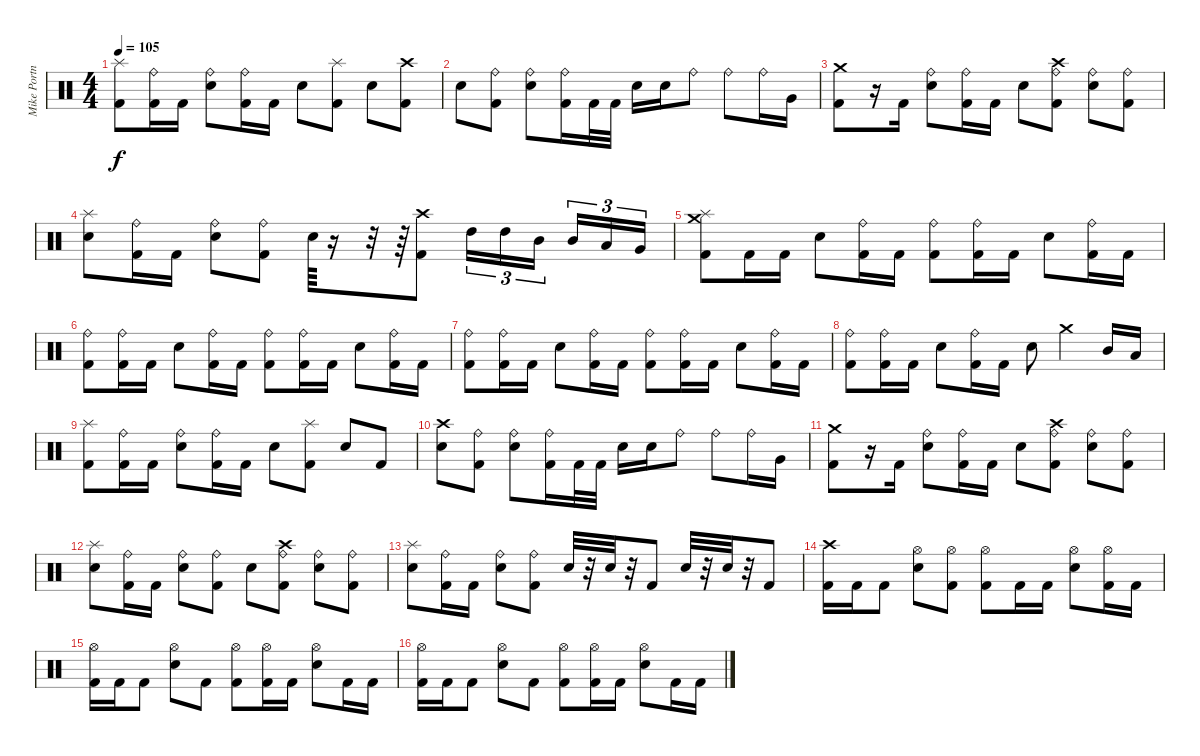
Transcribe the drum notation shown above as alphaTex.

\track ("Mike Portnoy" "Mike Portn") {instrument percussion}
\staff {score}
\articulation defaults
\ts (4 4)
\tempo 105
\clef neutral
\ks c
("Splash (hit)" "Kick (hit) 2").8{dy f} ("Ride (bell)" "Kick (hit) 2").16 "Kick (hit) 2".16 ("Ride (bell)" "Electric Snare (hit)").8 ("Ride (bell)" "Kick (hit) 2").16 "Kick (hit) 2".16 "Electric Snare (hit)".8 ("Splash (hit)" "Kick (hit) 2").8 "Electric Snare (hit)".8 ("Crash high (hit)" "Kick (hit) 2").8 |
"Electric Snare (hit)".8 ("Ride (bell)" "Kick (hit) 2").8 ("Ride (bell)" "Electric Snare (hit)").8 ("Ride (bell)" "Kick (hit) 2").16 "Kick (hit) 2".32 "Kick (hit) 2".32 "Electric Snare (hit)".16 "Electric Snare (hit)".16 "Ride (bell)".8 "Ride (bell)".8 "Ride (bell)".16 "Very Low Tom (hit)".16 |
("Crash medium (hit)" "Kick (hit) 2").8 r.16 "Kick (hit) 2".16 ("Ride (bell)" "Electric Snare (hit)").8 ("Ride (bell)" "Kick (hit) 2").16 "Kick (hit) 2".16 "Electric Snare (hit)".8 ("Ride (bell)" "Crash high (hit)" "Kick (hit) 2").8 ("Ride (bell)" "Electric Snare (hit)").8 ("Ride (bell)" "Kick (hit) 2").8 |
("Splash (hit)" "Electric Snare (hit)").8 ("Ride (bell)" "Kick (hit) 2").16 "Kick (hit) 2".16 ("Ride (bell)" "Electric Snare (hit)").8 ("Ride (bell)" "Kick (hit) 2").8 "Electric Snare (hit)".64 r.16 r.32 r.64 ("Crash high (hit)" "Kick (hit) 2").8 "High Tom (hit)".16{tu (3 2)} "High Tom (hit)".16{tu (3 2)} "Mid Tom (hit)".16{tu (3 2)} "Mid Tom (hit)".16{tu (3 2)} "Low Tom (hit)".16{tu (3 2)} "Very Low Tom (hit)".16{tu (3 2)} |
("Crash medium (hit)" "Splash (hit)" "Kick (hit) 2").8 "Kick (hit) 2".16 "Kick (hit) 2".16 "Electric Snare (hit)".8 ("Ride (bell)" "Kick (hit) 2").16 "Kick (hit) 2".16 ("Ride (bell)" "Kick (hit) 2").8 ("Ride (bell)" "Kick (hit) 2").16 "Kick (hit) 2".16 "Electric Snare (hit)".8 ("Ride (bell)" "Kick (hit) 2").16 "Kick (hit) 2".16 |
("Ride (bell)" "Kick (hit) 2").8 ("Ride (bell)" "Kick (hit) 2").16 "Kick (hit) 2".16 "Electric Snare (hit)".8 ("Ride (bell)" "Kick (hit) 2").16 "Kick (hit) 2".16 ("Ride (bell)" "Kick (hit) 2").8 ("Ride (bell)" "Kick (hit) 2").16 "Kick (hit) 2".16 "Electric Snare (hit)".8 ("Ride (bell)" "Kick (hit) 2").16 "Kick (hit) 2".16 |
("Ride (bell)" "Kick (hit) 2").8 ("Ride (bell)" "Kick (hit) 2").16 "Kick (hit) 2".16 "Electric Snare (hit)".8 ("Ride (bell)" "Kick (hit) 2").16 "Kick (hit) 2".16 ("Ride (bell)" "Kick (hit) 2").8 ("Ride (bell)" "Kick (hit) 2").16 "Kick (hit) 2".16 "Electric Snare (hit)".8 ("Ride (bell)" "Kick (hit) 2").16 "Kick (hit) 2".16 |
("Ride (bell)" "Kick (hit) 2").8 ("Ride (bell)" "Kick (hit) 2").16 "Kick (hit) 2".16 "Electric Snare (hit)".8 ("Ride (bell)" "Kick (hit) 2").16 "Kick (hit) 2".16 "Electric Snare (hit)".8 "Crash medium (hit)".4 "Mid Tom (hit)".16 "Low Tom (hit)".16 |
("Splash (hit)" "Kick (hit) 2").8 ("Ride (bell)" "Kick (hit) 2").16 "Kick (hit) 2".16 ("Ride (bell)" "Electric Snare (hit)").8 ("Ride (bell)" "Kick (hit) 2").16 "Kick (hit) 2".16 "Electric Snare (hit)".8 ("Splash (hit)" "Kick (hit) 2").8 "Electric Snare (hit)".8 "Kick (hit) 2".8 |
("Crash high (hit)" "Electric Snare (hit)").8 ("Ride (bell)" "Kick (hit) 2").8 ("Ride (bell)" "Electric Snare (hit)").8 ("Ride (bell)" "Kick (hit) 2").16 "Kick (hit) 2".32 "Kick (hit) 2".32 "Electric Snare (hit)".16 "Electric Snare (hit)".16 "Ride (bell)".8 "Ride (bell)".8 "Ride (bell)".16 "Very Low Tom (hit)".16 |
("Crash medium (hit)" "Kick (hit) 2").8 r.16 "Kick (hit) 2".16 ("Ride (bell)" "Electric Snare (hit)").8 ("Ride (bell)" "Kick (hit) 2").16 "Kick (hit) 2".16 "Electric Snare (hit)".8 ("Ride (bell)" "Crash high (hit)" "Kick (hit) 2").8 ("Ride (bell)" "Electric Snare (hit)").8 ("Ride (bell)" "Kick (hit) 2").8 |
("Splash (hit)" "Electric Snare (hit)").8 ("Ride (bell)" "Kick (hit) 2").16 "Kick (hit) 2".16 ("Ride (bell)" "Electric Snare (hit)").8 ("Ride (bell)" "Kick (hit) 2").8 "Electric Snare (hit)".8 ("Ride (bell)" "Crash high (hit)" "Kick (hit) 2").8 ("Ride (bell)" "Electric Snare (hit)").8 ("Ride (bell)" "Kick (hit) 2").8 |
("Splash (hit)" "Electric Snare (hit)").8 ("Ride (bell)" "Kick (hit) 2").16 "Kick (hit) 2".16 ("Ride (bell)" "Electric Snare (hit)").8 ("Ride (bell)" "Kick (hit) 2").8 "Electric Snare (hit)".32 r.32 "Electric Snare (hit)".32 r.32 "Kick (hit) 2".8 "Electric Snare (hit)".32 r.32 "Electric Snare (hit)".32 r.32 "Kick (hit) 2".8 |
("Crash high (hit)" "Kick (hit) 2").16 "Kick (hit) 2".16 "Kick (hit) 2".8 ("Hi-Hat (open)" "Electric Snare (hit)").8 ("Hi-Hat (open)" "Kick (hit) 2").8 ("Hi-Hat (open)" "Kick (hit) 2").8 "Kick (hit) 2".16 "Kick (hit) 2".16 ("Hi-Hat (open)" "Electric Snare (hit)").8 ("Hi-Hat (open)" "Kick (hit) 2").16 "Kick (hit) 2".16 |
("Hi-Hat (open)" "Kick (hit) 2").16 "Kick (hit) 2".16 "Kick (hit) 2".8 ("Hi-Hat (open)" "Electric Snare (hit)").8 "Kick (hit) 2".8 ("Hi-Hat (open)" "Kick (hit) 2").8 ("Hi-Hat (open)" "Kick (hit) 2").16 "Kick (hit) 2".16 ("Hi-Hat (open)" "Electric Snare (hit)").8 "Kick (hit) 2".16 "Kick (hit) 2".16 |
("Hi-Hat (open)" "Kick (hit) 2").16 "Kick (hit) 2".16 "Kick (hit) 2".8 ("Hi-Hat (open)" "Electric Snare (hit)").8 "Kick (hit) 2".8 ("Hi-Hat (open)" "Kick (hit) 2").8 ("Hi-Hat (open)" "Kick (hit) 2").16 "Kick (hit) 2".16 ("Hi-Hat (open)" "Electric Snare (hit)").8 "Kick (hit) 2".16 "Kick (hit) 2".16
